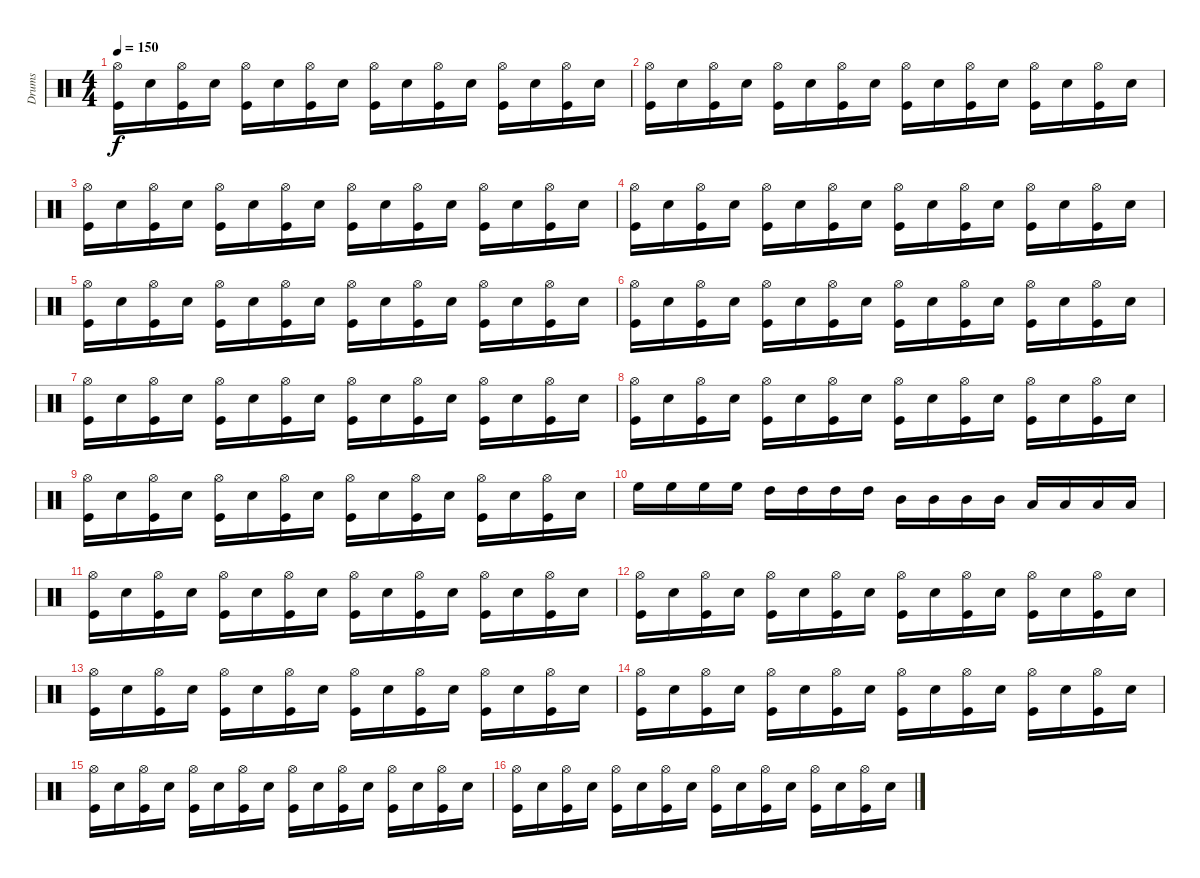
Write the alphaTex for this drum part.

\track ("Drums" "Drums") {instrument percussion}
\staff {score}
\articulation defaults
\ts (4 4)
\tempo 150
\clef neutral
\ks c
("Hi-Hat (open)" "Kick (hit)").16{dy f} "Snare (hit) 2".16 ("Hi-Hat (open)" "Kick (hit)").16 "Snare (hit) 2".16 ("Hi-Hat (open)" "Kick (hit)").16 "Snare (hit) 2".16 ("Hi-Hat (open)" "Kick (hit)").16 "Snare (hit) 2".16 ("Hi-Hat (open)" "Kick (hit)").16 "Snare (hit) 2".16 ("Hi-Hat (open)" "Kick (hit)").16 "Snare (hit) 2".16 ("Hi-Hat (open)" "Kick (hit)").16 "Snare (hit) 2".16 ("Hi-Hat (open)" "Kick (hit)").16 "Snare (hit) 2".16 |
("Hi-Hat (open)" "Kick (hit)").16 "Snare (hit) 2".16 ("Hi-Hat (open)" "Kick (hit)").16 "Snare (hit) 2".16 ("Hi-Hat (open)" "Kick (hit)").16 "Snare (hit) 2".16 ("Hi-Hat (open)" "Kick (hit)").16 "Snare (hit) 2".16 ("Hi-Hat (open)" "Kick (hit)").16 "Snare (hit) 2".16 ("Hi-Hat (open)" "Kick (hit)").16 "Snare (hit) 2".16 ("Hi-Hat (open)" "Kick (hit)").16 "Snare (hit) 2".16 ("Hi-Hat (open)" "Kick (hit)").16 "Snare (hit) 2".16 |
("Hi-Hat (open)" "Kick (hit)").16 "Snare (hit) 2".16 ("Hi-Hat (open)" "Kick (hit)").16 "Snare (hit) 2".16 ("Hi-Hat (open)" "Kick (hit)").16 "Snare (hit) 2".16 ("Hi-Hat (open)" "Kick (hit)").16 "Snare (hit) 2".16 ("Hi-Hat (open)" "Kick (hit)").16 "Snare (hit) 2".16 ("Hi-Hat (open)" "Kick (hit)").16 "Snare (hit) 2".16 ("Hi-Hat (open)" "Kick (hit)").16 "Snare (hit) 2".16 ("Hi-Hat (open)" "Kick (hit)").16 "Snare (hit) 2".16 |
("Hi-Hat (open)" "Kick (hit)").16 "Snare (hit) 2".16 ("Hi-Hat (open)" "Kick (hit)").16 "Snare (hit) 2".16 ("Hi-Hat (open)" "Kick (hit)").16 "Snare (hit) 2".16 ("Hi-Hat (open)" "Kick (hit)").16 "Snare (hit) 2".16 ("Hi-Hat (open)" "Kick (hit)").16 "Snare (hit) 2".16 ("Hi-Hat (open)" "Kick (hit)").16 "Snare (hit) 2".16 ("Hi-Hat (open)" "Kick (hit)").16 "Snare (hit) 2".16 ("Hi-Hat (open)" "Kick (hit)").16 "Snare (hit) 2".16 |
("Hi-Hat (open)" "Kick (hit)").16 "Snare (hit) 2".16 ("Hi-Hat (open)" "Kick (hit)").16 "Snare (hit) 2".16 ("Hi-Hat (open)" "Kick (hit)").16 "Snare (hit) 2".16 ("Hi-Hat (open)" "Kick (hit)").16 "Snare (hit) 2".16 ("Hi-Hat (open)" "Kick (hit)").16 "Snare (hit) 2".16 ("Hi-Hat (open)" "Kick (hit)").16 "Snare (hit) 2".16 ("Hi-Hat (open)" "Kick (hit)").16 "Snare (hit) 2".16 ("Hi-Hat (open)" "Kick (hit)").16 "Snare (hit) 2".16 |
("Hi-Hat (open)" "Kick (hit)").16 "Snare (hit) 2".16 ("Hi-Hat (open)" "Kick (hit)").16 "Snare (hit) 2".16 ("Hi-Hat (open)" "Kick (hit)").16 "Snare (hit) 2".16 ("Hi-Hat (open)" "Kick (hit)").16 "Snare (hit) 2".16 ("Hi-Hat (open)" "Kick (hit)").16 "Snare (hit) 2".16 ("Hi-Hat (open)" "Kick (hit)").16 "Snare (hit) 2".16 ("Hi-Hat (open)" "Kick (hit)").16 "Snare (hit) 2".16 ("Hi-Hat (open)" "Kick (hit)").16 "Snare (hit) 2".16 |
("Hi-Hat (open)" "Kick (hit)").16 "Snare (hit) 2".16 ("Hi-Hat (open)" "Kick (hit)").16 "Snare (hit) 2".16 ("Hi-Hat (open)" "Kick (hit)").16 "Snare (hit) 2".16 ("Hi-Hat (open)" "Kick (hit)").16 "Snare (hit) 2".16 ("Hi-Hat (open)" "Kick (hit)").16 "Snare (hit) 2".16 ("Hi-Hat (open)" "Kick (hit)").16 "Snare (hit) 2".16 ("Hi-Hat (open)" "Kick (hit)").16 "Snare (hit) 2".16 ("Hi-Hat (open)" "Kick (hit)").16 "Snare (hit) 2".16 |
("Hi-Hat (open)" "Kick (hit)").16 "Snare (hit) 2".16 ("Hi-Hat (open)" "Kick (hit)").16 "Snare (hit) 2".16 ("Hi-Hat (open)" "Kick (hit)").16 "Snare (hit) 2".16 ("Hi-Hat (open)" "Kick (hit)").16 "Snare (hit) 2".16 ("Hi-Hat (open)" "Kick (hit)").16 "Snare (hit) 2".16 ("Hi-Hat (open)" "Kick (hit)").16 "Snare (hit) 2".16 ("Hi-Hat (open)" "Kick (hit)").16 "Snare (hit) 2".16 ("Hi-Hat (open)" "Kick (hit)").16 "Snare (hit) 2".16 |
("Hi-Hat (open)" "Kick (hit)").16 "Snare (hit) 2".16 ("Hi-Hat (open)" "Kick (hit)").16 "Snare (hit) 2".16 ("Hi-Hat (open)" "Kick (hit)").16 "Snare (hit) 2".16 ("Hi-Hat (open)" "Kick (hit)").16 "Snare (hit) 2".16 ("Hi-Hat (open)" "Kick (hit)").16 "Snare (hit) 2".16 ("Hi-Hat (open)" "Kick (hit)").16 "Snare (hit) 2".16 ("Hi-Hat (open)" "Kick (hit)").16 "Snare (hit) 2".16 ("Hi-Hat (open)" "Kick (hit)").16 "Snare (hit) 2".16 |
"High Floor Tom (hit)".16 "High Floor Tom (hit)".16 "High Floor Tom (hit)".16 "High Floor Tom (hit)".16 "High Tom (hit)".16 "High Tom (hit)".16 "High Tom (hit)".16 "High Tom (hit)".16 "Mid Tom (hit)".16 "Mid Tom (hit)".16 "Mid Tom (hit)".16 "Mid Tom (hit)".16 "Low Tom (hit)".16 "Low Tom (hit)".16 "Low Tom (hit)".16 "Low Tom (hit)".16 |
("Hi-Hat (open)" "Kick (hit)").16 "Snare (hit) 2".16 ("Hi-Hat (open)" "Kick (hit)").16 "Snare (hit) 2".16 ("Hi-Hat (open)" "Kick (hit)").16 "Snare (hit) 2".16 ("Hi-Hat (open)" "Kick (hit)").16 "Snare (hit) 2".16 ("Hi-Hat (open)" "Kick (hit)").16 "Snare (hit) 2".16 ("Hi-Hat (open)" "Kick (hit)").16 "Snare (hit) 2".16 ("Hi-Hat (open)" "Kick (hit)").16 "Snare (hit) 2".16 ("Hi-Hat (open)" "Kick (hit)").16 "Snare (hit) 2".16 |
("Hi-Hat (open)" "Kick (hit)").16 "Snare (hit) 2".16 ("Hi-Hat (open)" "Kick (hit)").16 "Snare (hit) 2".16 ("Hi-Hat (open)" "Kick (hit)").16 "Snare (hit) 2".16 ("Hi-Hat (open)" "Kick (hit)").16 "Snare (hit) 2".16 ("Hi-Hat (open)" "Kick (hit)").16 "Snare (hit) 2".16 ("Hi-Hat (open)" "Kick (hit)").16 "Snare (hit) 2".16 ("Hi-Hat (open)" "Kick (hit)").16 "Snare (hit) 2".16 ("Hi-Hat (open)" "Kick (hit)").16 "Snare (hit) 2".16 |
("Hi-Hat (open)" "Kick (hit)").16 "Snare (hit) 2".16 ("Hi-Hat (open)" "Kick (hit)").16 "Snare (hit) 2".16 ("Hi-Hat (open)" "Kick (hit)").16 "Snare (hit) 2".16 ("Hi-Hat (open)" "Kick (hit)").16 "Snare (hit) 2".16 ("Hi-Hat (open)" "Kick (hit)").16 "Snare (hit) 2".16 ("Hi-Hat (open)" "Kick (hit)").16 "Snare (hit) 2".16 ("Hi-Hat (open)" "Kick (hit)").16 "Snare (hit) 2".16 ("Hi-Hat (open)" "Kick (hit)").16 "Snare (hit) 2".16 |
("Hi-Hat (open)" "Kick (hit)").16 "Snare (hit) 2".16 ("Hi-Hat (open)" "Kick (hit)").16 "Snare (hit) 2".16 ("Hi-Hat (open)" "Kick (hit)").16 "Snare (hit) 2".16 ("Hi-Hat (open)" "Kick (hit)").16 "Snare (hit) 2".16 ("Hi-Hat (open)" "Kick (hit)").16 "Snare (hit) 2".16 ("Hi-Hat (open)" "Kick (hit)").16 "Snare (hit) 2".16 ("Hi-Hat (open)" "Kick (hit)").16 "Snare (hit) 2".16 ("Hi-Hat (open)" "Kick (hit)").16 "Snare (hit) 2".16 |
("Hi-Hat (open)" "Kick (hit)").16 "Snare (hit) 2".16 ("Hi-Hat (open)" "Kick (hit)").16 "Snare (hit) 2".16 ("Hi-Hat (open)" "Kick (hit)").16 "Snare (hit) 2".16 ("Hi-Hat (open)" "Kick (hit)").16 "Snare (hit) 2".16 ("Hi-Hat (open)" "Kick (hit)").16 "Snare (hit) 2".16 ("Hi-Hat (open)" "Kick (hit)").16 "Snare (hit) 2".16 ("Hi-Hat (open)" "Kick (hit)").16 "Snare (hit) 2".16 ("Hi-Hat (open)" "Kick (hit)").16 "Snare (hit) 2".16 |
("Hi-Hat (open)" "Kick (hit)").16 "Snare (hit) 2".16 ("Hi-Hat (open)" "Kick (hit)").16 "Snare (hit) 2".16 ("Hi-Hat (open)" "Kick (hit)").16 "Snare (hit) 2".16 ("Hi-Hat (open)" "Kick (hit)").16 "Snare (hit) 2".16 ("Hi-Hat (open)" "Kick (hit)").16 "Snare (hit) 2".16 ("Hi-Hat (open)" "Kick (hit)").16 "Snare (hit) 2".16 ("Hi-Hat (open)" "Kick (hit)").16 "Snare (hit) 2".16 ("Hi-Hat (open)" "Kick (hit)").16 "Snare (hit) 2".16
